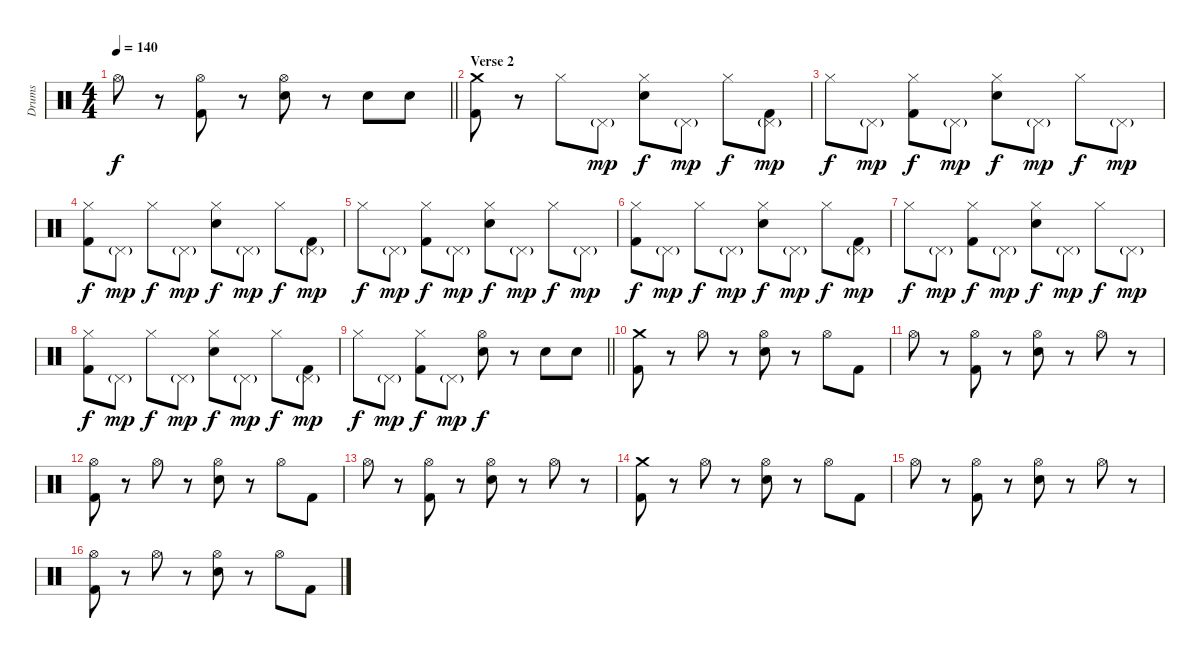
\track ("Drums" "Drums") {instrument percussion}
\staff {score}
\articulation defaults
\ts (4 4)
\tempo 140
\clef neutral
\barLineRight lightlight
\ks c "Hi-Hat (open)".8{dy f}
r.8 ("Hi-Hat (open)" "Kick (hit) 2").8 r.8 ("Hi-Hat (open)" "Electric Snare (hit)").8 r.8 "Electric Snare (hit)".8 "Electric Snare (hit)".8 |
\section ("" "Verse 2")
("Crash medium (hit)" "Kick (hit) 2").8 r.8 "Hi-Hat (closed)".8 "Pedal Hi-Hat (hit)"{g}.8{dy mp} ("Hi-Hat (closed)" "Electric Snare (hit)").8{dy f} "Pedal Hi-Hat (hit)"{g}.8{dy mp} "Hi-Hat (closed)".8{dy f} ("Pedal Hi-Hat (hit)"{g} "Kick (hit) 2").8{dy mp} |
"Hi-Hat (closed)".8{dy f} "Pedal Hi-Hat (hit)"{g}.8{dy mp} ("Hi-Hat (closed)" "Kick (hit) 2").8{dy f} "Pedal Hi-Hat (hit)"{g}.8{dy mp} ("Hi-Hat (closed)" "Electric Snare (hit)").8{dy f} "Pedal Hi-Hat (hit)"{g}.8{dy mp} "Hi-Hat (closed)".8{dy f} "Pedal Hi-Hat (hit)"{g}.8{dy mp} |
("Hi-Hat (closed)" "Kick (hit) 2").8{dy f} "Pedal Hi-Hat (hit)"{g}.8{dy mp} "Hi-Hat (closed)".8{dy f} "Pedal Hi-Hat (hit)"{g}.8{dy mp} ("Hi-Hat (closed)" "Electric Snare (hit)").8{dy f} "Pedal Hi-Hat (hit)"{g}.8{dy mp} "Hi-Hat (closed)".8{dy f} ("Pedal Hi-Hat (hit)"{g} "Kick (hit) 2").8{dy mp} |
"Hi-Hat (closed)".8{dy f} "Pedal Hi-Hat (hit)"{g}.8{dy mp} ("Hi-Hat (closed)" "Kick (hit) 2").8{dy f} "Pedal Hi-Hat (hit)"{g}.8{dy mp} ("Hi-Hat (closed)" "Electric Snare (hit)").8{dy f} "Pedal Hi-Hat (hit)"{g}.8{dy mp} "Hi-Hat (closed)".8{dy f} "Pedal Hi-Hat (hit)"{g}.8{dy mp} |
("Hi-Hat (closed)" "Kick (hit) 2").8{dy f} "Pedal Hi-Hat (hit)"{g}.8{dy mp} "Hi-Hat (closed)".8{dy f} "Pedal Hi-Hat (hit)"{g}.8{dy mp} ("Hi-Hat (closed)" "Electric Snare (hit)").8{dy f} "Pedal Hi-Hat (hit)"{g}.8{dy mp} "Hi-Hat (closed)".8{dy f} ("Pedal Hi-Hat (hit)"{g} "Kick (hit) 2").8{dy mp} |
"Hi-Hat (closed)".8{dy f} "Pedal Hi-Hat (hit)"{g}.8{dy mp} ("Hi-Hat (closed)" "Kick (hit) 2").8{dy f} "Pedal Hi-Hat (hit)"{g}.8{dy mp} ("Hi-Hat (closed)" "Electric Snare (hit)").8{dy f} "Pedal Hi-Hat (hit)"{g}.8{dy mp} "Hi-Hat (closed)".8{dy f} "Pedal Hi-Hat (hit)"{g}.8{dy mp} |
("Hi-Hat (closed)" "Kick (hit) 2").8{dy f} "Pedal Hi-Hat (hit)"{g}.8{dy mp} "Hi-Hat (closed)".8{dy f} "Pedal Hi-Hat (hit)"{g}.8{dy mp} ("Hi-Hat (closed)" "Electric Snare (hit)").8{dy f} "Pedal Hi-Hat (hit)"{g}.8{dy mp} "Hi-Hat (closed)".8{dy f} ("Pedal Hi-Hat (hit)"{g} "Kick (hit) 2").8{dy mp} |
\barLineRight lightlight "Hi-Hat (closed)".8{dy f} "Pedal Hi-Hat (hit)"{g}.8{dy mp}
("Hi-Hat (closed)" "Kick (hit) 2").8{dy f} "Pedal Hi-Hat (hit)"{g}.8{dy mp} ("Hi-Hat (open)" "Electric Snare (hit)").8{dy f} r.8 "Electric Snare (hit)".8 "Electric Snare (hit)".8 |
("Crash medium (hit)" "Kick (hit) 2").8 r.8 "Hi-Hat (open)".8 r.8 ("Hi-Hat (open)" "Electric Snare (hit)").8 r.8 "Hi-Hat (open)".8 "Kick (hit) 2".8 |
"Hi-Hat (open)".8 r.8 ("Hi-Hat (open)" "Kick (hit) 2").8 r.8 ("Hi-Hat (open)" "Electric Snare (hit)").8 r.8 "Hi-Hat (open)".8 r.8 |
("Hi-Hat (open)" "Kick (hit) 2").8 r.8 "Hi-Hat (open)".8 r.8 ("Hi-Hat (open)" "Electric Snare (hit)").8 r.8 "Hi-Hat (open)".8 "Kick (hit) 2".8 |
"Hi-Hat (open)".8 r.8 ("Hi-Hat (open)" "Kick (hit) 2").8 r.8 ("Hi-Hat (open)" "Electric Snare (hit)").8 r.8 "Hi-Hat (open)".8 r.8 |
("Crash medium (hit)" "Kick (hit) 2").8 r.8 "Hi-Hat (open)".8 r.8 ("Hi-Hat (open)" "Electric Snare (hit)").8 r.8 "Hi-Hat (open)".8 "Kick (hit) 2".8 |
"Hi-Hat (open)".8 r.8 ("Hi-Hat (open)" "Kick (hit) 2").8 r.8 ("Hi-Hat (open)" "Electric Snare (hit)").8 r.8 "Hi-Hat (open)".8 r.8 |
("Hi-Hat (open)" "Kick (hit) 2").8 r.8 "Hi-Hat (open)".8 r.8 ("Hi-Hat (open)" "Electric Snare (hit)").8 r.8 "Hi-Hat (open)".8 "Kick (hit) 2".8
